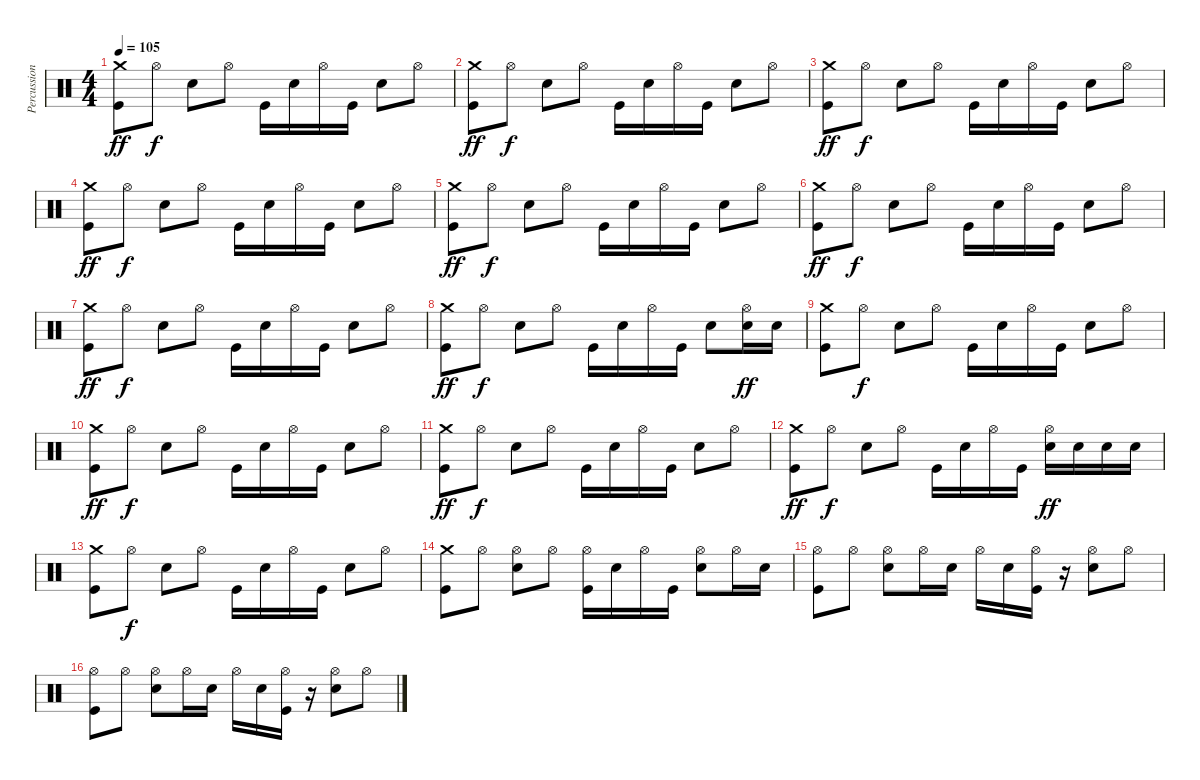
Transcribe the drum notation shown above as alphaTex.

\track ("Percussion" "Percussion") {instrument percussion}
\staff {score}
\articulation defaults
\ts (4 4)
\tempo 105
\clef neutral
\ks c
("Crash medium (hit)" "Kick (hit)").8{dy ff} "Hi-Hat (open)".8{dy f} "Electric Snare (hit)".8 "Hi-Hat (open)".8 "Kick (hit)".16 "Electric Snare (hit)".16 "Hi-Hat (open)".16 "Kick (hit)".16 "Electric Snare (hit)".8 "Hi-Hat (open)".8 |
("Crash medium (hit)" "Kick (hit)").8{dy ff} "Hi-Hat (open)".8{dy f} "Electric Snare (hit)".8 "Hi-Hat (open)".8 "Kick (hit)".16 "Electric Snare (hit)".16 "Hi-Hat (open)".16 "Kick (hit)".16 "Electric Snare (hit)".8 "Hi-Hat (open)".8 |
("Crash medium (hit)" "Kick (hit)").8{dy ff} "Hi-Hat (open)".8{dy f} "Electric Snare (hit)".8 "Hi-Hat (open)".8 "Kick (hit)".16 "Electric Snare (hit)".16 "Hi-Hat (open)".16 "Kick (hit)".16 "Electric Snare (hit)".8 "Hi-Hat (open)".8 |
("Crash medium (hit)" "Kick (hit)").8{dy ff} "Hi-Hat (open)".8{dy f} "Electric Snare (hit)".8 "Hi-Hat (open)".8 "Kick (hit)".16 "Electric Snare (hit)".16 "Hi-Hat (open)".16 "Kick (hit)".16 "Electric Snare (hit)".8 "Hi-Hat (open)".8 |
("Crash medium (hit)" "Kick (hit)").8{dy ff} "Hi-Hat (open)".8{dy f} "Electric Snare (hit)".8 "Hi-Hat (open)".8 "Kick (hit)".16 "Electric Snare (hit)".16 "Hi-Hat (open)".16 "Kick (hit)".16 "Electric Snare (hit)".8 "Hi-Hat (open)".8 |
("Crash medium (hit)" "Kick (hit)").8{dy ff} "Hi-Hat (open)".8{dy f} "Electric Snare (hit)".8 "Hi-Hat (open)".8 "Kick (hit)".16 "Electric Snare (hit)".16 "Hi-Hat (open)".16 "Kick (hit)".16 "Electric Snare (hit)".8 "Hi-Hat (open)".8 |
("Crash medium (hit)" "Kick (hit)").8{dy ff} "Hi-Hat (open)".8{dy f} "Electric Snare (hit)".8 "Hi-Hat (open)".8 "Kick (hit)".16 "Electric Snare (hit)".16 "Hi-Hat (open)".16 "Kick (hit)".16 "Electric Snare (hit)".8 "Hi-Hat (open)".8 |
("Crash medium (hit)" "Kick (hit)").8{dy ff} "Hi-Hat (open)".8{dy f} "Electric Snare (hit)".8 "Hi-Hat (open)".8 "Kick (hit)".16 "Electric Snare (hit)".16 "Hi-Hat (open)".16 "Kick (hit)".16 "Electric Snare (hit)".8 ("Hi-Hat (open)" "Electric Snare (hit)").16{dy ff} "Electric Snare (hit)".16 |
("Crash medium (hit)" "Kick (hit)").8 "Hi-Hat (open)".8{dy f} "Electric Snare (hit)".8 "Hi-Hat (open)".8 "Kick (hit)".16 "Electric Snare (hit)".16 "Hi-Hat (open)".16 "Kick (hit)".16 "Electric Snare (hit)".8 "Hi-Hat (open)".8 |
("Crash medium (hit)" "Kick (hit)").8{dy ff} "Hi-Hat (open)".8{dy f} "Electric Snare (hit)".8 "Hi-Hat (open)".8 "Kick (hit)".16 "Electric Snare (hit)".16 "Hi-Hat (open)".16 "Kick (hit)".16 "Electric Snare (hit)".8 "Hi-Hat (open)".8 |
("Crash medium (hit)" "Kick (hit)").8{dy ff} "Hi-Hat (open)".8{dy f} "Electric Snare (hit)".8 "Hi-Hat (open)".8 "Kick (hit)".16 "Electric Snare (hit)".16 "Hi-Hat (open)".16 "Kick (hit)".16 "Electric Snare (hit)".8 "Hi-Hat (open)".8 |
("Crash medium (hit)" "Kick (hit)").8{dy ff} "Hi-Hat (open)".8{dy f} "Electric Snare (hit)".8 "Hi-Hat (open)".8 "Kick (hit)".16 "Electric Snare (hit)".16 "Hi-Hat (open)".16 "Kick (hit)".16 ("Hi-Hat (open)" "Electric Snare (hit)").16{dy ff} "Electric Snare (hit)".16 "Electric Snare (hit)".16 "Electric Snare (hit)".16 |
("Crash medium (hit)" "Kick (hit)").8 "Hi-Hat (open)".8{dy f} "Electric Snare (hit)".8 "Hi-Hat (open)".8 "Kick (hit)".16 "Electric Snare (hit)".16 "Hi-Hat (open)".16 "Kick (hit)".16 "Electric Snare (hit)".8 "Hi-Hat (open)".8 |
("Crash medium (hit)" "Kick (hit)").8 "Hi-Hat (open)".8 ("Hi-Hat (open)" "Electric Snare (hit)").8 "Hi-Hat (open)".8 ("Hi-Hat (open)" "Kick (hit)").16 "Electric Snare (hit)".16 "Hi-Hat (open)".16 "Kick (hit)".16 ("Hi-Hat (open)" "Electric Snare (hit)").8 "Hi-Hat (open)".16 "Electric Snare (hit)".16 |
("Hi-Hat (open)" "Kick (hit)").8 "Hi-Hat (open)".8 ("Hi-Hat (open)" "Electric Snare (hit)").8 "Hi-Hat (open)".16 "Electric Snare (hit)".16 "Hi-Hat (open)".16 "Electric Snare (hit)".16 ("Hi-Hat (open)" "Kick (hit)").16 r.16 ("Hi-Hat (open)" "Electric Snare (hit)").8 "Hi-Hat (open)".8 |
("Hi-Hat (open)" "Kick (hit)").8 "Hi-Hat (open)".8 ("Hi-Hat (open)" "Electric Snare (hit)").8 "Hi-Hat (open)".16 "Electric Snare (hit)".16 "Hi-Hat (open)".16 "Electric Snare (hit)".16 ("Hi-Hat (open)" "Kick (hit)").16 r.16 ("Hi-Hat (open)" "Electric Snare (hit)").8 "Hi-Hat (open)".8
